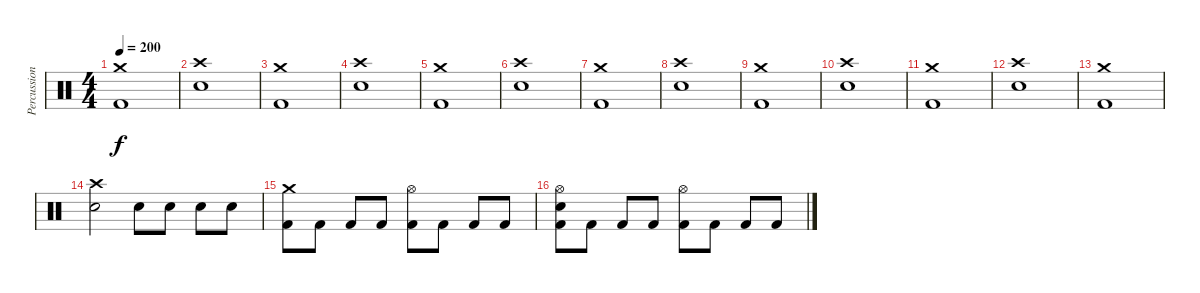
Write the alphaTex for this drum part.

\track ("Percussions" "Percussion") {instrument percussion}
\staff {score}
\articulation defaults
\ts (4 4)
\tempo 200
\clef neutral
\ks c
("Crash medium (hit)" "Kick (hit) 2").1{dy f} |
("Crash high (hit)" "Electric Snare (hit)").1 |
("Crash medium (hit)" "Kick (hit) 2").1 |
("Crash high (hit)" "Electric Snare (hit)").1 |
("Crash medium (hit)" "Kick (hit) 2").1 |
("Crash high (hit)" "Electric Snare (hit)").1 |
("Crash medium (hit)" "Kick (hit) 2").1 |
("Crash high (hit)" "Electric Snare (hit)").1 |
("Crash medium (hit)" "Kick (hit) 2").1 |
("Crash high (hit)" "Electric Snare (hit)").1 |
("Crash medium (hit)" "Kick (hit) 2").1 |
("Crash high (hit)" "Electric Snare (hit)").1 |
("Crash medium (hit)" "Kick (hit) 2").1 |
("Crash high (hit)" "Electric Snare (hit)").2 "Electric Snare (hit)".8 "Electric Snare (hit)".8 "Electric Snare (hit)".8 "Electric Snare (hit)".8 |
("Crash medium (hit)" "Kick (hit) 2").8 "Kick (hit) 2".8 "Kick (hit) 2".8 "Kick (hit) 2".8 ("Hi-Hat (open)" "Kick (hit) 2").8 "Kick (hit) 2".8 "Kick (hit) 2".8 "Kick (hit) 2".8 |
("Hi-Hat (open)" "Electric Snare (hit)" "Kick (hit) 2").8 "Kick (hit) 2".8 "Kick (hit) 2".8 "Kick (hit) 2".8 ("Hi-Hat (open)" "Kick (hit) 2").8 "Kick (hit) 2".8 "Kick (hit) 2".8 "Kick (hit) 2".8
